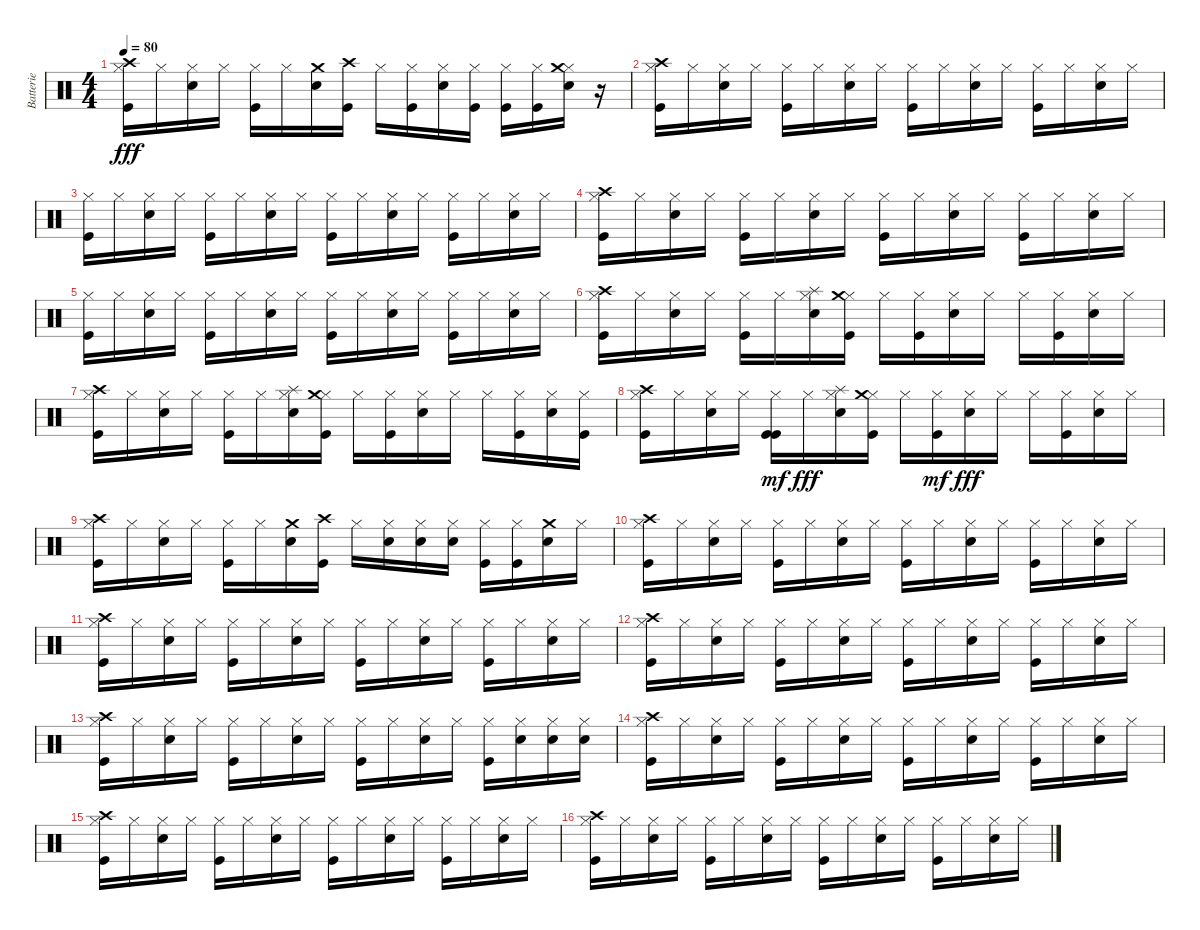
\track ("Batterie" "Batterie") {instrument percussion}
\staff {score}
\articulation defaults
\ts (4 4)
\tempo 80
\clef neutral
\ks c
("Hi-Hat (closed)" "Kick (hit)" "Crash high (hit)").16{dy fff} "Hi-Hat (closed)".16 ("Metronome (bell)" "Hi-Hat (closed)").16 "Hi-Hat (closed)".16 ("Kick (hit)" "Hi-Hat (closed)").16 "Hi-Hat (closed)".16 ("Metronome (bell)" "Crash medium (hit)").16 ("Kick (hit)" "Crash high (hit)").16 "Hi-Hat (closed)".16 ("Kick (hit)" "Hi-Hat (closed)").16 ("Metronome (bell)" "Hi-Hat (closed)").16 ("Kick (hit)" "Hi-Hat (closed)").16 ("Kick (hit)" "Hi-Hat (closed)").16 ("Kick (hit)" "Hi-Hat (closed)").16 ("Metronome (bell)" "Hi-Hat (closed)" "Crash medium (hit)").16 r.16 |
("Hi-Hat (closed)" "Kick (hit)" "Crash high (hit)").16 "Hi-Hat (closed)".16 ("Hi-Hat (closed)" "Metronome (bell)").16 "Hi-Hat (closed)".16 ("Hi-Hat (closed)" "Kick (hit)").16 "Hi-Hat (closed)".16 ("Hi-Hat (closed)" "Metronome (bell)").16 "Hi-Hat (closed)".16 ("Hi-Hat (closed)" "Kick (hit)").16 "Hi-Hat (closed)".16 ("Hi-Hat (closed)" "Metronome (bell)").16 "Hi-Hat (closed)".16 ("Hi-Hat (closed)" "Kick (hit)").16 "Hi-Hat (closed)".16 ("Hi-Hat (closed)" "Metronome (bell)").16 "Hi-Hat (closed)".16 |
("Hi-Hat (closed)" "Kick (hit)").16 "Hi-Hat (closed)".16 ("Hi-Hat (closed)" "Metronome (bell)").16 "Hi-Hat (closed)".16 ("Hi-Hat (closed)" "Kick (hit)").16 "Hi-Hat (closed)".16 ("Hi-Hat (closed)" "Metronome (bell)").16 "Hi-Hat (closed)".16 ("Hi-Hat (closed)" "Kick (hit)").16 "Hi-Hat (closed)".16 ("Hi-Hat (closed)" "Metronome (bell)").16 "Hi-Hat (closed)".16 ("Hi-Hat (closed)" "Kick (hit)").16 "Hi-Hat (closed)".16 ("Hi-Hat (closed)" "Metronome (bell)").16 "Hi-Hat (closed)".16 |
("Hi-Hat (closed)" "Kick (hit)" "Crash high (hit)").16 "Hi-Hat (closed)".16 ("Hi-Hat (closed)" "Metronome (bell)").16 "Hi-Hat (closed)".16 ("Hi-Hat (closed)" "Kick (hit)").16 "Hi-Hat (closed)".16 ("Hi-Hat (closed)" "Metronome (bell)").16 "Hi-Hat (closed)".16 ("Hi-Hat (closed)" "Kick (hit)").16 "Hi-Hat (closed)".16 ("Hi-Hat (closed)" "Metronome (bell)").16 "Hi-Hat (closed)".16 ("Hi-Hat (closed)" "Kick (hit)").16 "Hi-Hat (closed)".16 ("Hi-Hat (closed)" "Metronome (bell)").16 "Hi-Hat (closed)".16 |
("Hi-Hat (closed)" "Kick (hit)").16 "Hi-Hat (closed)".16 ("Hi-Hat (closed)" "Metronome (bell)").16 "Hi-Hat (closed)".16 ("Hi-Hat (closed)" "Kick (hit)").16 "Hi-Hat (closed)".16 ("Hi-Hat (closed)" "Metronome (bell)").16 "Hi-Hat (closed)".16 ("Hi-Hat (closed)" "Kick (hit)").16 "Hi-Hat (closed)".16 ("Hi-Hat (closed)" "Metronome (bell)").16 "Hi-Hat (closed)".16 ("Hi-Hat (closed)" "Kick (hit)").16 "Hi-Hat (closed)".16 ("Hi-Hat (closed)" "Metronome (bell)").16 "Hi-Hat (closed)".16 |
("Hi-Hat (closed)" "Kick (hit)" "Crash high (hit)").16 "Hi-Hat (closed)".16 ("Hi-Hat (closed)" "Metronome (bell)").16 "Hi-Hat (closed)".16 ("Hi-Hat (closed)" "Kick (hit)").16 "Hi-Hat (closed)".16 ("Hi-Hat (closed)" "Metronome (bell)" "Splash (hit)").16 ("Hi-Hat (closed)" "Kick (hit)" "Crash medium (hit)").16 "Hi-Hat (closed)".16 ("Hi-Hat (closed)" "Kick (hit)").16 ("Hi-Hat (closed)" "Metronome (bell)").16 "Hi-Hat (closed)".16 "Hi-Hat (closed)".16 ("Hi-Hat (closed)" "Kick (hit)").16 ("Hi-Hat (closed)" "Metronome (bell)").16 "Hi-Hat (closed)".16 |
("Hi-Hat (closed)" "Kick (hit)" "Crash high (hit)").16 "Hi-Hat (closed)".16 ("Hi-Hat (closed)" "Metronome (bell)").16 "Hi-Hat (closed)".16 ("Hi-Hat (closed)" "Kick (hit)").16 "Hi-Hat (closed)".16 ("Hi-Hat (closed)" "Metronome (bell)" "Splash (hit)").16 ("Hi-Hat (closed)" "Kick (hit)" "Crash medium (hit)").16 "Hi-Hat (closed)".16 ("Hi-Hat (closed)" "Kick (hit)").16 ("Hi-Hat (closed)" "Metronome (bell)").16 "Hi-Hat (closed)".16 "Hi-Hat (closed)".16 ("Hi-Hat (closed)" "Kick (hit)").16 ("Hi-Hat (closed)" "Metronome (bell)").16 ("Hi-Hat (closed)" "Kick (hit)").16 |
("Hi-Hat (closed)" "Kick (hit)" "Crash high (hit)").16 "Hi-Hat (closed)".16 ("Hi-Hat (closed)" "Metronome (bell)").16 "Hi-Hat (closed)".16 ("Hi-Hat (closed)" "Kick (hit)" "Kick (hit)").16{dy mf} "Hi-Hat (closed)".16{dy fff} ("Hi-Hat (closed)" "Metronome (bell)" "Splash (hit)").16 ("Hi-Hat (closed)" "Kick (hit)" "Crash medium (hit)").16 "Hi-Hat (closed)".16 ("Hi-Hat (closed)" "Kick (hit)").16{dy mf} ("Hi-Hat (closed)" "Metronome (bell)").16{dy fff} "Hi-Hat (closed)".16 "Hi-Hat (closed)".16 ("Hi-Hat (closed)" "Kick (hit)").16 ("Hi-Hat (closed)" "Metronome (bell)").16 "Hi-Hat (closed)".16 |
("Kick (hit)" "Hi-Hat (closed)" "Crash high (hit)").16 "Hi-Hat (closed)".16 ("Hi-Hat (closed)" "Metronome (bell)").16 "Hi-Hat (closed)".16 ("Hi-Hat (closed)" "Kick (hit)").16 "Hi-Hat (closed)".16 ("Metronome (bell)" "Crash medium (hit)").16 ("Kick (hit)" "Crash high (hit)").16 "Hi-Hat (closed)".16 ("Hi-Hat (closed)" "Metronome (bell)").16 ("Hi-Hat (closed)" "Metronome (bell)").16 ("Metronome (bell)" "Hi-Hat (closed)").16 ("Hi-Hat (closed)" "Kick (hit)").16 ("Hi-Hat (closed)" "Kick (hit)").16 ("Metronome (bell)" "Crash medium (hit)").16 "Hi-Hat (closed)".16 |
("Hi-Hat (closed)" "Kick (hit)" "Crash high (hit)").16 "Hi-Hat (closed)".16 ("Hi-Hat (closed)" "Metronome (bell)").16 "Hi-Hat (closed)".16 ("Hi-Hat (closed)" "Kick (hit)").16 "Hi-Hat (closed)".16 ("Hi-Hat (closed)" "Metronome (bell)").16 "Hi-Hat (closed)".16 ("Hi-Hat (closed)" "Kick (hit)").16 "Hi-Hat (closed)".16 ("Hi-Hat (closed)" "Metronome (bell)").16 "Hi-Hat (closed)".16 ("Hi-Hat (closed)" "Kick (hit)").16 "Hi-Hat (closed)".16 ("Hi-Hat (closed)" "Metronome (bell)").16 "Hi-Hat (closed)".16 |
("Hi-Hat (closed)" "Kick (hit)" "Crash high (hit)").16 "Hi-Hat (closed)".16 ("Hi-Hat (closed)" "Metronome (bell)").16 "Hi-Hat (closed)".16 ("Hi-Hat (closed)" "Kick (hit)").16 "Hi-Hat (closed)".16 ("Hi-Hat (closed)" "Metronome (bell)").16 "Hi-Hat (closed)".16 ("Hi-Hat (closed)" "Kick (hit)").16 "Hi-Hat (closed)".16 ("Hi-Hat (closed)" "Metronome (bell)").16 "Hi-Hat (closed)".16 ("Hi-Hat (closed)" "Kick (hit)").16 "Hi-Hat (closed)".16 ("Hi-Hat (closed)" "Metronome (bell)").16 "Hi-Hat (closed)".16 |
("Hi-Hat (closed)" "Kick (hit)" "Crash high (hit)").16 "Hi-Hat (closed)".16 ("Hi-Hat (closed)" "Metronome (bell)").16 "Hi-Hat (closed)".16 ("Hi-Hat (closed)" "Kick (hit)").16 "Hi-Hat (closed)".16 ("Hi-Hat (closed)" "Metronome (bell)").16 "Hi-Hat (closed)".16 ("Hi-Hat (closed)" "Kick (hit)").16 "Hi-Hat (closed)".16 ("Hi-Hat (closed)" "Metronome (bell)").16 "Hi-Hat (closed)".16 ("Hi-Hat (closed)" "Kick (hit)").16 "Hi-Hat (closed)".16 ("Hi-Hat (closed)" "Metronome (bell)").16 "Hi-Hat (closed)".16 |
("Hi-Hat (closed)" "Kick (hit)" "Crash high (hit)").16 "Hi-Hat (closed)".16 ("Hi-Hat (closed)" "Metronome (bell)").16 "Hi-Hat (closed)".16 ("Hi-Hat (closed)" "Kick (hit)").16 "Hi-Hat (closed)".16 ("Hi-Hat (closed)" "Metronome (bell)").16 "Hi-Hat (closed)".16 ("Kick (hit)" "Hi-Hat (closed)").16 "Hi-Hat (closed)".16 ("Hi-Hat (closed)" "Metronome (bell)").16 "Hi-Hat (closed)".16 ("Hi-Hat (closed)" "Kick (hit)").16 ("Hi-Hat (closed)" "Metronome (bell)").16 ("Hi-Hat (closed)" "Metronome (bell)").16 ("Hi-Hat (closed)" "Metronome (bell)").16 |
("Hi-Hat (closed)" "Kick (hit)" "Crash high (hit)").16 "Hi-Hat (closed)".16 ("Hi-Hat (closed)" "Metronome (bell)").16 "Hi-Hat (closed)".16 ("Hi-Hat (closed)" "Kick (hit)").16 "Hi-Hat (closed)".16 ("Hi-Hat (closed)" "Metronome (bell)").16 "Hi-Hat (closed)".16 ("Hi-Hat (closed)" "Kick (hit)").16 "Hi-Hat (closed)".16 ("Hi-Hat (closed)" "Metronome (bell)").16 "Hi-Hat (closed)".16 ("Hi-Hat (closed)" "Kick (hit)").16 "Hi-Hat (closed)".16 ("Hi-Hat (closed)" "Metronome (bell)").16 "Hi-Hat (closed)".16 |
("Hi-Hat (closed)" "Kick (hit)" "Crash high (hit)").16 "Hi-Hat (closed)".16 ("Hi-Hat (closed)" "Metronome (bell)").16 "Hi-Hat (closed)".16 ("Hi-Hat (closed)" "Kick (hit)").16 "Hi-Hat (closed)".16 ("Hi-Hat (closed)" "Metronome (bell)").16 "Hi-Hat (closed)".16 ("Hi-Hat (closed)" "Kick (hit)").16 "Hi-Hat (closed)".16 ("Hi-Hat (closed)" "Metronome (bell)").16 "Hi-Hat (closed)".16 ("Hi-Hat (closed)" "Kick (hit)").16 "Hi-Hat (closed)".16 ("Hi-Hat (closed)" "Metronome (bell)").16 "Hi-Hat (closed)".16 |
("Hi-Hat (closed)" "Kick (hit)" "Crash high (hit)").16 "Hi-Hat (closed)".16 ("Hi-Hat (closed)" "Metronome (bell)").16 "Hi-Hat (closed)".16 ("Hi-Hat (closed)" "Kick (hit)").16 "Hi-Hat (closed)".16 ("Hi-Hat (closed)" "Metronome (bell)").16 "Hi-Hat (closed)".16 ("Hi-Hat (closed)" "Kick (hit)").16 "Hi-Hat (closed)".16 ("Hi-Hat (closed)" "Metronome (bell)").16 "Hi-Hat (closed)".16 ("Hi-Hat (closed)" "Kick (hit)").16 "Hi-Hat (closed)".16 ("Hi-Hat (closed)" "Metronome (bell)").16 "Hi-Hat (closed)".16
